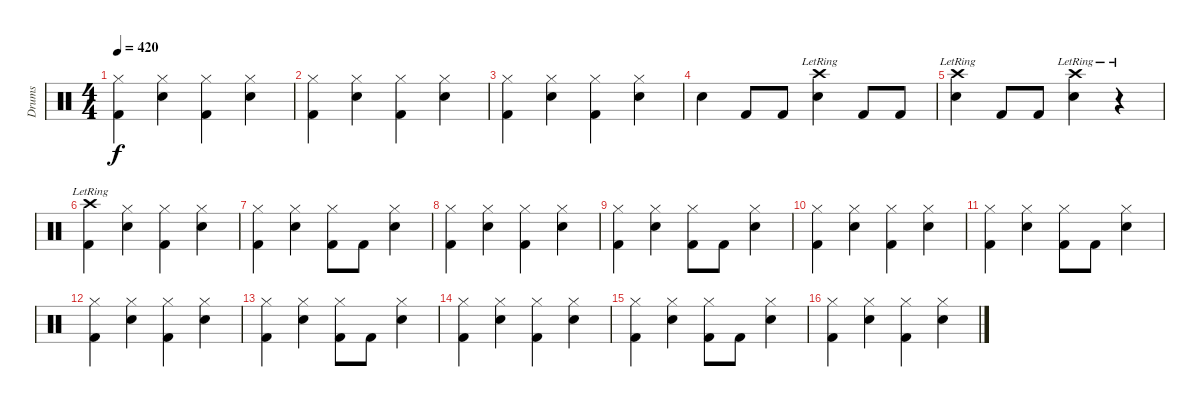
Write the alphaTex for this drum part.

\track ("Drums" "Drums") {instrument percussion}
\staff {score}
\articulation defaults
\ts (4 4)
\tempo 420
\clef neutral
\ks c
("Hi-Hat (closed)" "Kick (hit) 2").4{dy f} ("Hi-Hat (closed)" "Snare (hit) 2").4 ("Hi-Hat (closed)" "Kick (hit) 2").4 ("Hi-Hat (closed)" "Snare (hit) 2").4 |
("Hi-Hat (closed)" "Kick (hit) 2").4 ("Hi-Hat (closed)" "Snare (hit) 2").4 ("Hi-Hat (closed)" "Kick (hit) 2").4 ("Hi-Hat (closed)" "Snare (hit) 2").4 |
("Hi-Hat (closed)" "Kick (hit) 2").4 ("Hi-Hat (closed)" "Snare (hit) 2").4 ("Hi-Hat (closed)" "Kick (hit) 2").4 ("Hi-Hat (closed)" "Snare (hit) 2").4 |
"Snare (hit) 2".4 "Kick (hit) 2".8 "Kick (hit) 2".8 ("Crash high (hit)"{lr} "Snare (hit) 2").4 "Kick (hit) 2".8 "Kick (hit) 2".8 |
("Crash high (hit)"{lr} "Snare (hit) 2").4 "Kick (hit) 2".8 "Kick (hit) 2".8 ("Crash high (hit)"{lr} "Snare (hit) 2").4 r.4 |
("Crash high (hit)"{lr} "Kick (hit) 2").4 ("Hi-Hat (closed)" "Snare (hit) 2").4 ("Hi-Hat (closed)" "Kick (hit) 2").4 ("Hi-Hat (closed)" "Snare (hit) 2").4 |
("Hi-Hat (closed)" "Kick (hit) 2").4 ("Hi-Hat (closed)" "Snare (hit) 2").4 ("Hi-Hat (closed)" "Kick (hit) 2").8 "Kick (hit) 2".8 ("Hi-Hat (closed)" "Snare (hit) 2").4 |
("Hi-Hat (closed)" "Kick (hit) 2").4 ("Hi-Hat (closed)" "Snare (hit) 2").4 ("Hi-Hat (closed)" "Kick (hit) 2").4 ("Hi-Hat (closed)" "Snare (hit) 2").4 |
("Hi-Hat (closed)" "Kick (hit) 2").4 ("Hi-Hat (closed)" "Snare (hit) 2").4 ("Hi-Hat (closed)" "Kick (hit) 2").8 "Kick (hit) 2".8 ("Hi-Hat (closed)" "Snare (hit) 2").4 |
("Hi-Hat (closed)" "Kick (hit) 2").4 ("Hi-Hat (closed)" "Snare (hit) 2").4 ("Hi-Hat (closed)" "Kick (hit) 2").4 ("Hi-Hat (closed)" "Snare (hit) 2").4 |
("Hi-Hat (closed)" "Kick (hit) 2").4 ("Hi-Hat (closed)" "Snare (hit) 2").4 ("Hi-Hat (closed)" "Kick (hit) 2").8 "Kick (hit) 2".8 ("Hi-Hat (closed)" "Snare (hit) 2").4 |
("Hi-Hat (closed)" "Kick (hit) 2").4 ("Hi-Hat (closed)" "Snare (hit) 2").4 ("Hi-Hat (closed)" "Kick (hit) 2").4 ("Hi-Hat (closed)" "Snare (hit) 2").4 |
("Hi-Hat (closed)" "Kick (hit) 2").4 ("Hi-Hat (closed)" "Snare (hit) 2").4 ("Hi-Hat (closed)" "Kick (hit) 2").8 "Kick (hit) 2".8 ("Hi-Hat (closed)" "Snare (hit) 2").4 |
("Hi-Hat (closed)" "Kick (hit) 2").4 ("Hi-Hat (closed)" "Snare (hit) 2").4 ("Hi-Hat (closed)" "Kick (hit) 2").4 ("Hi-Hat (closed)" "Snare (hit) 2").4 |
("Hi-Hat (closed)" "Kick (hit) 2").4 ("Hi-Hat (closed)" "Snare (hit) 2").4 ("Hi-Hat (closed)" "Kick (hit) 2").8 "Kick (hit) 2".8 ("Hi-Hat (closed)" "Snare (hit) 2").4 |
("Hi-Hat (closed)" "Kick (hit) 2").4 ("Hi-Hat (closed)" "Snare (hit) 2").4 ("Hi-Hat (closed)" "Kick (hit) 2").4 ("Hi-Hat (closed)" "Snare (hit) 2").4
